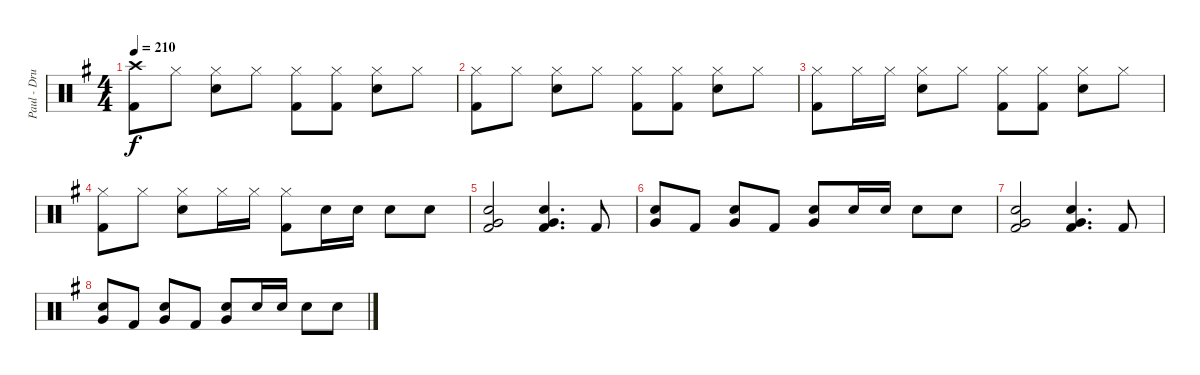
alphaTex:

\track ("Paul - Drums" "Paul - Dru") {instrument percussion}
\staff {score}
\articulation defaults
\ts (4 4)
\tempo 210
\clef neutral
\ks g
("Crash high (hit)" "Kick (hit) 2").8{dy f} "Hi-Hat (closed)".8 ("Hi-Hat (closed)" "Electric Snare (hit)").8 "Hi-Hat (closed)".8 ("Hi-Hat (closed)" "Kick (hit) 2").8 ("Hi-Hat (closed)" "Kick (hit) 2").8 ("Hi-Hat (closed)" "Electric Snare (hit)").8 "Hi-Hat (closed)".8 |
("Hi-Hat (closed)" "Kick (hit) 2").8 "Hi-Hat (closed)".8 ("Hi-Hat (closed)" "Electric Snare (hit)").8 "Hi-Hat (closed)".8 ("Hi-Hat (closed)" "Kick (hit) 2").8 ("Hi-Hat (closed)" "Kick (hit) 2").8 ("Hi-Hat (closed)" "Electric Snare (hit)").8 "Hi-Hat (closed)".8 |
("Hi-Hat (closed)" "Kick (hit) 2").8 "Hi-Hat (closed)".16 "Hi-Hat (closed)".16 ("Hi-Hat (closed)" "Electric Snare (hit)").8 "Hi-Hat (closed)".8 ("Hi-Hat (closed)" "Kick (hit) 2").8 ("Hi-Hat (closed)" "Kick (hit) 2").8 ("Hi-Hat (closed)" "Electric Snare (hit)").8 "Hi-Hat (closed)".8 |
("Hi-Hat (closed)" "Kick (hit) 2").8 "Hi-Hat (closed)".8 ("Hi-Hat (closed)" "Electric Snare (hit)").8 "Hi-Hat (closed)".16 "Hi-Hat (closed)".16 ("Hi-Hat (closed)" "Kick (hit) 2").8 "Electric Snare (hit)".16 "Electric Snare (hit)".16 "Electric Snare (hit)".8 "Electric Snare (hit)".8 |
("Very Low Tom (hit)" "Electric Snare (hit)" "Kick (hit) 2").2 ("Very Low Tom (hit)" "Electric Snare (hit)" "Kick (hit) 2").4{d} "Kick (hit) 2".8 |
("Very Low Tom (hit)" "Electric Snare (hit)").8 "Kick (hit) 2".8 ("Very Low Tom (hit)" "Electric Snare (hit)").8 "Kick (hit) 2".8 ("Very Low Tom (hit)" "Electric Snare (hit)").8 "Electric Snare (hit)".16 "Electric Snare (hit)".16 "Electric Snare (hit)".8 "Electric Snare (hit)".8 |
("Very Low Tom (hit)" "Electric Snare (hit)" "Kick (hit) 2").2 ("Very Low Tom (hit)" "Electric Snare (hit)" "Kick (hit) 2").4{d} "Kick (hit) 2".8 |
("Very Low Tom (hit)" "Electric Snare (hit)").8 "Kick (hit) 2".8 ("Very Low Tom (hit)" "Electric Snare (hit)").8 "Kick (hit) 2".8 ("Very Low Tom (hit)" "Electric Snare (hit)").8 "Electric Snare (hit)".16 "Electric Snare (hit)".16 "Electric Snare (hit)".8 "Electric Snare (hit)".8
